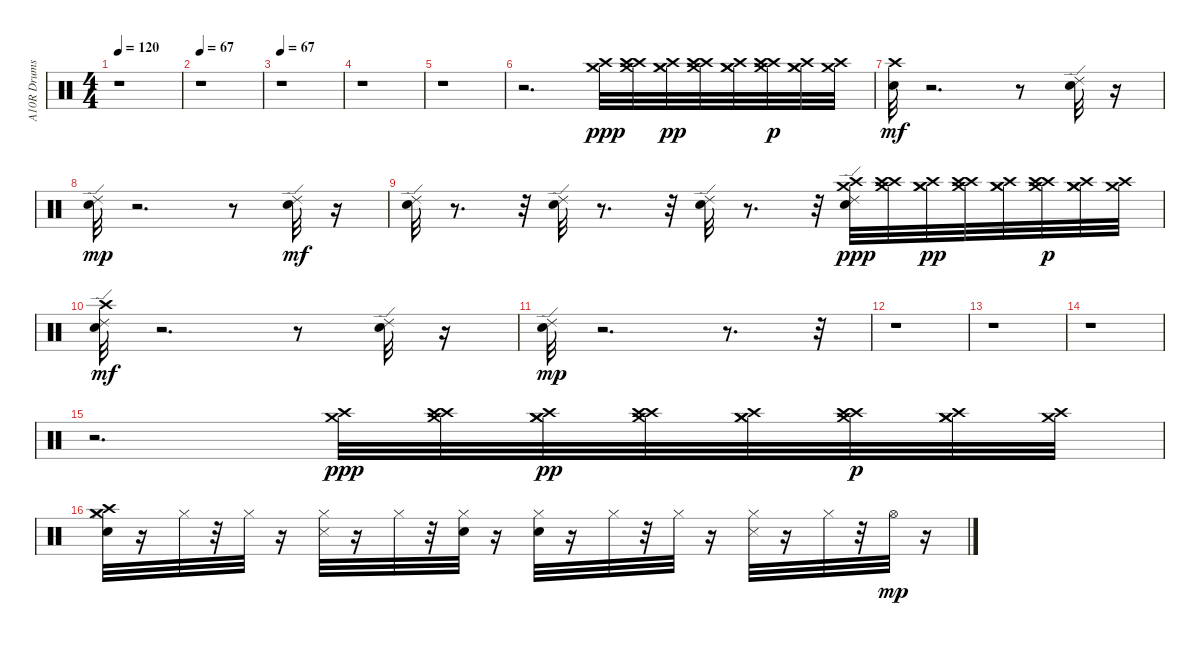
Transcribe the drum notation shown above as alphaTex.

\track ("A10R Drums" "A10R Drums") {instrument percussion}
\staff {score}
\articulation defaults
\ts (4 4)
\tempo 120
\clef neutral
\ks c
r.1{dy ppp} |
\tempo 67
r.1 |
\tempo 67
r.1 |
r.1 |
r.1 |
r.2{d} ("Crash high (hit)" "Crash medium (hit)").32 ("Crash high (hit)" "Crash medium (hit)" "Crash high (hit)").32 ("Crash medium (hit)" "Crash high (hit)" "Crash medium (hit)").32{dy pp} ("Crash high (hit)" "Crash medium (hit)" "Crash high (hit)").32 ("Crash medium (hit)" "Crash high (hit)" "Crash medium (hit)").32 ("Crash high (hit)" "Crash medium (hit)" "Crash high (hit)").32{dy p} ("Crash medium (hit)" "Crash high (hit)" "Crash medium (hit)").32 ("Crash high (hit)" "Crash medium (hit)").32 |
("Crash high (hit)" "Snare (hit)").32{dy mf} r.2{d} r.8 ("Ride (edge) 2" "Snare (hit)").32 r.16 |
("Ride (edge) 2" "Snare (hit)").32{dy mp} r.2{d} r.8 ("Ride (edge) 2" "Snare (hit)").32{dy mf} r.16 |
("Ride (edge) 2" "Snare (hit)").32 r.8{d} r.32 ("Ride (edge) 2" "Snare (hit)").32 r.8{d} r.32 ("Ride (edge) 2" "Snare (hit)").32 r.8{d} r.32 ("Ride (edge) 2" "Crash high (hit)" "Snare (hit)" "Crash medium (hit)").32{dy ppp} ("Crash high (hit)" "Crash medium (hit)" "Crash high (hit)").32 ("Crash medium (hit)" "Crash high (hit)" "Crash medium (hit)").32{dy pp} ("Crash high (hit)" "Crash medium (hit)" "Crash high (hit)").32 ("Crash medium (hit)" "Crash high (hit)" "Crash medium (hit)").32 ("Crash high (hit)" "Crash medium (hit)" "Crash high (hit)").32{dy p} ("Crash medium (hit)" "Crash high (hit)" "Crash medium (hit)").32 ("Crash high (hit)" "Crash medium (hit)").32 |
("Ride (edge) 2" "Crash high (hit)" "Snare (hit)").32{dy mf} r.2{d} r.8 ("Ride (edge) 2" "Snare (hit)").32 r.16 |
("Ride (edge) 2" "Snare (hit)").32{dy mp} r.2{d} r.8{d} r.32 |
r.1 |
r.1 |
r.1 |
r.2{d} ("Crash high (hit)" "Crash medium (hit)").32{dy ppp} ("Crash high (hit)" "Crash medium (hit)" "Crash high (hit)").32 ("Crash medium (hit)" "Crash high (hit)" "Crash medium (hit)").32{dy pp} ("Crash high (hit)" "Crash medium (hit)" "Crash high (hit)").32 ("Crash medium (hit)" "Crash high (hit)" "Crash medium (hit)").32 ("Crash high (hit)" "Crash medium (hit)" "Crash high (hit)").32{dy p} ("Crash medium (hit)" "Crash high (hit)" "Crash medium (hit)").32 ("Crash high (hit)" "Crash medium (hit)").32 |
("Crash medium (hit)" "Crash high (hit)" "Snare (hit)" "Hi-Hat (closed)").32 r.16 "Hi-Hat (closed)".32 r.32 "Hi-Hat (closed)".32 r.16 ("Snare (side stick) 3" "Hi-Hat (closed)").32 r.16 "Hi-Hat (closed)".32 r.32 ("Snare (hit)" "Hi-Hat (closed)").32 r.16 ("Snare (hit)" "Hi-Hat (closed)").32 r.16 "Hi-Hat (closed)".32 r.32 "Hi-Hat (closed)".32 r.16 ("Snare (side stick) 3" "Hi-Hat (closed)").32 r.16 "Hi-Hat (closed)".32 r.32 "Hi-Hat (open)".32{dy mp} r.16
